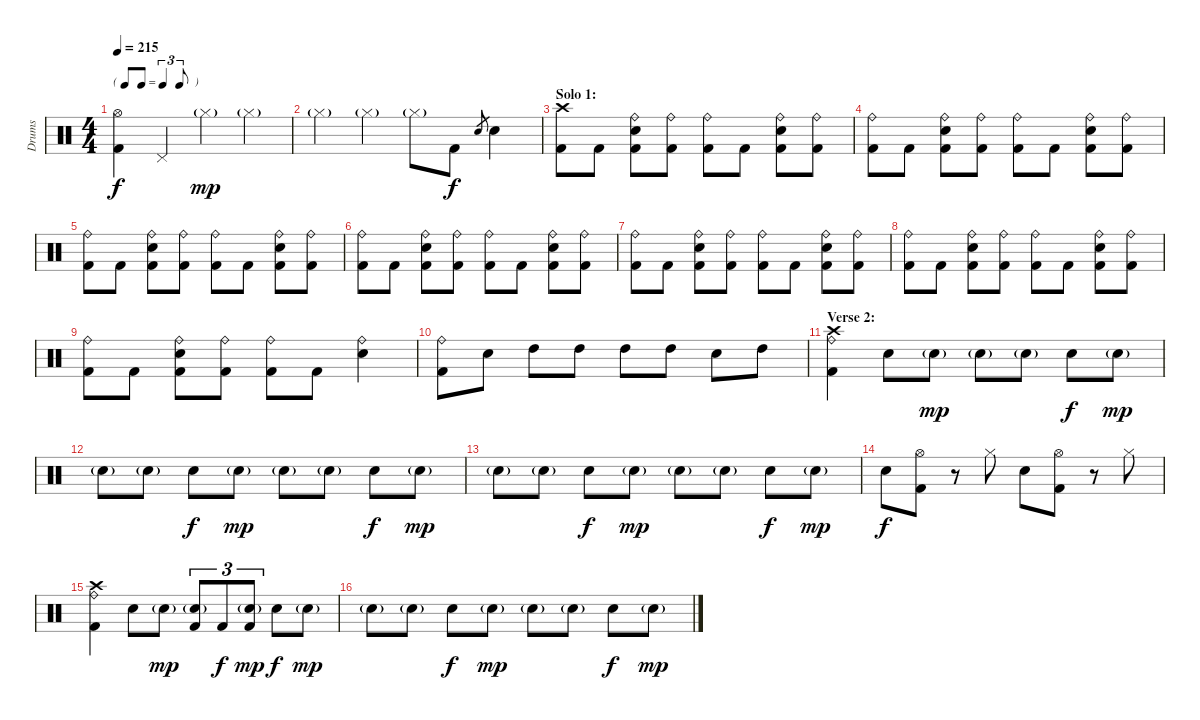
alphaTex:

\track ("Drums" "Drums") {instrument percussion}
\staff {score}
\articulation defaults
\ts (4 4)
\tf triplet8th
\tempo 215
\clef neutral
\ks c
("Hi-Hat (open)" "Kick (hit) 2").4{dy f} "Pedal Hi-Hat (hit)".4 "Hi-Hat (closed)"{g}.4{dy mp} "Hi-Hat (closed)"{g}.4 |
"Hi-Hat (closed)"{g}.4 "Hi-Hat (closed)"{g}.4 "Hi-Hat (closed)"{g}.8 "Kick (hit) 2".8{dy f} "Electric Snare (hit)".8{gr} "Electric Snare (hit)".4 |
\section ("" "Solo 1:")
("Crash high (hit)" "Kick (hit) 2").8 "Kick (hit) 2".8 ("Ride (bell)" "Electric Snare (hit)" "Kick (hit) 2").8 ("Ride (bell)" "Kick (hit) 2").8 ("Ride (bell)" "Kick (hit) 2").8 "Kick (hit) 2".8 ("Ride (bell)" "Electric Snare (hit)" "Kick (hit) 2").8 ("Ride (bell)" "Kick (hit) 2").8 |
("Ride (bell)" "Kick (hit) 2").8 "Kick (hit) 2".8 ("Ride (bell)" "Electric Snare (hit)" "Kick (hit) 2").8 ("Ride (bell)" "Kick (hit) 2").8 ("Ride (bell)" "Kick (hit) 2").8 "Kick (hit) 2".8 ("Ride (bell)" "Electric Snare (hit)" "Kick (hit) 2").8 ("Ride (bell)" "Kick (hit) 2").8 |
("Ride (bell)" "Kick (hit) 2").8 "Kick (hit) 2".8 ("Ride (bell)" "Electric Snare (hit)" "Kick (hit) 2").8 ("Ride (bell)" "Kick (hit) 2").8 ("Ride (bell)" "Kick (hit) 2").8 "Kick (hit) 2".8 ("Ride (bell)" "Electric Snare (hit)" "Kick (hit) 2").8 ("Ride (bell)" "Kick (hit) 2").8 |
("Ride (bell)" "Kick (hit) 2").8 "Kick (hit) 2".8 ("Ride (bell)" "Electric Snare (hit)" "Kick (hit) 2").8 ("Ride (bell)" "Kick (hit) 2").8 ("Ride (bell)" "Kick (hit) 2").8 "Kick (hit) 2".8 ("Ride (bell)" "Electric Snare (hit)" "Kick (hit) 2").8 ("Ride (bell)" "Kick (hit) 2").8 |
("Ride (bell)" "Kick (hit) 2").8 "Kick (hit) 2".8 ("Ride (bell)" "Electric Snare (hit)" "Kick (hit) 2").8 ("Ride (bell)" "Kick (hit) 2").8 ("Ride (bell)" "Kick (hit) 2").8 "Kick (hit) 2".8 ("Ride (bell)" "Electric Snare (hit)" "Kick (hit) 2").8 ("Ride (bell)" "Kick (hit) 2").8 |
("Ride (bell)" "Kick (hit) 2").8 "Kick (hit) 2".8 ("Ride (bell)" "Electric Snare (hit)" "Kick (hit) 2").8 ("Ride (bell)" "Kick (hit) 2").8 ("Ride (bell)" "Kick (hit) 2").8 "Kick (hit) 2".8 ("Ride (bell)" "Electric Snare (hit)" "Kick (hit) 2").8 ("Ride (bell)" "Kick (hit) 2").8 |
("Ride (bell)" "Kick (hit) 2").8 "Kick (hit) 2".8 ("Ride (bell)" "Electric Snare (hit)" "Kick (hit) 2").8 ("Ride (bell)" "Kick (hit) 2").8 ("Ride (bell)" "Kick (hit) 2").8 "Kick (hit) 2".8 ("Ride (bell)" "Electric Snare (hit)").4 |
("Ride (bell)" "Kick (hit) 2").8 "Electric Snare (hit)".8 "High Tom (hit)".8 "High Tom (hit)".8 "High Tom (hit)".8 "High Tom (hit)".8 "Electric Snare (hit)".8 "High Tom (hit)".8 |
\section ("" "Verse 2:")
("Crash high (hit)" "Ride (bell)" "Kick (hit) 2").4 "Electric Snare (hit)".8 "Electric Snare (hit)"{g}.8{dy mp} "Electric Snare (hit)"{g}.8 "Electric Snare (hit)"{g}.8 "Electric Snare (hit)".8{dy f} "Electric Snare (hit)"{g}.8{dy mp} |
"Electric Snare (hit)"{g}.8 "Electric Snare (hit)"{g}.8 "Electric Snare (hit)".8{dy f} "Electric Snare (hit)"{g}.8{dy mp} "Electric Snare (hit)"{g}.8 "Electric Snare (hit)"{g}.8 "Electric Snare (hit)".8{dy f} "Electric Snare (hit)"{g}.8{dy mp} |
"Electric Snare (hit)"{g}.8 "Electric Snare (hit)"{g}.8 "Electric Snare (hit)".8{dy f} "Electric Snare (hit)"{g}.8{dy mp} "Electric Snare (hit)"{g}.8 "Electric Snare (hit)"{g}.8 "Electric Snare (hit)".8{dy f} "Electric Snare (hit)"{g}.8{dy mp} |
"Electric Snare (hit)".8{dy f} ("Hi-Hat (open)" "Kick (hit) 2").8 r.8 "Hi-Hat (closed)".8 "Electric Snare (hit)".8 ("Hi-Hat (open)" "Kick (hit) 2").8 r.8 "Hi-Hat (closed)".8 |
("Crash high (hit)" "Ride (bell)" "Kick (hit) 2").4 "Electric Snare (hit)".8 "Electric Snare (hit)"{g}.8{dy mp} ("Electric Snare (hit)"{g} "Kick (hit) 2").8{tu (3 2)} "Kick (hit) 2".8{tu (3 2) dy f} ("Electric Snare (hit)"{g} "Kick (hit) 2").8{tu (3 2) dy mp} "Electric Snare (hit)".8{dy f} "Electric Snare (hit)"{g}.8{dy mp} |
"Electric Snare (hit)"{g}.8 "Electric Snare (hit)"{g}.8 "Electric Snare (hit)".8{dy f} "Electric Snare (hit)"{g}.8{dy mp} "Electric Snare (hit)"{g}.8 "Electric Snare (hit)"{g}.8 "Electric Snare (hit)".8{dy f} "Electric Snare (hit)"{g}.8{dy mp}
